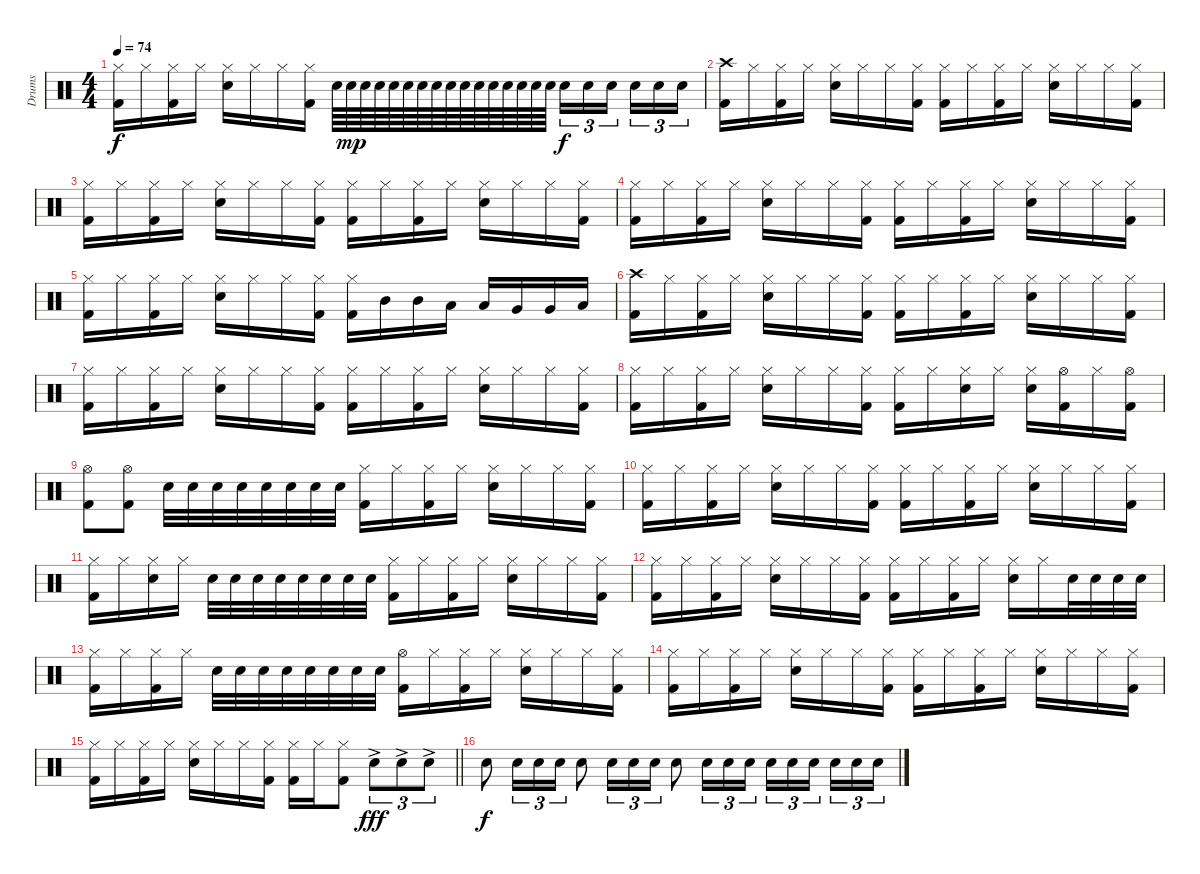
\track ("Drums" "Drums") {instrument percussion}
\staff {score}
\articulation defaults
\ts (4 4)
\tempo 74
\clef neutral
\ks aminor
("Hi-Hat (closed)" "Kick (hit) 2").16{dy f} "Hi-Hat (closed)".16 ("Hi-Hat (closed)" "Kick (hit) 2").16 "Hi-Hat (closed)".16 ("Hi-Hat (closed)" "Snare (hit) 2").16 "Hi-Hat (closed)".16 "Hi-Hat (closed)".16 ("Hi-Hat (closed)" "Kick (hit) 2").16 "Snare (hit) 2".64 "Snare (hit) 2".64{dy mp} "Snare (hit) 2".64 "Snare (hit) 2".64 "Snare (hit) 2".64 "Snare (hit) 2".64 "Snare (hit) 2".64 "Snare (hit) 2".64 "Snare (hit) 2".64 "Snare (hit) 2".64 "Snare (hit) 2".64 "Snare (hit) 2".64 "Snare (hit) 2".64 "Snare (hit) 2".64 "Snare (hit) 2".64 "Snare (hit) 2".64 "Snare (hit) 2".16{tu (3 2) dy f} "Snare (hit) 2".16{tu (3 2)} "Snare (hit) 2".16{tu (3 2)} "Snare (hit) 2".16{tu (3 2)} "Snare (hit) 2".16{tu (3 2)} "Snare (hit) 2".16{tu (3 2)} |
("Crash high (hit)" "Kick (hit) 2").16 "Hi-Hat (closed)".16 ("Hi-Hat (closed)" "Kick (hit) 2").16 "Hi-Hat (closed)".16 ("Hi-Hat (closed)" "Snare (hit) 2").16 "Hi-Hat (closed)".16 "Hi-Hat (closed)".16 ("Hi-Hat (closed)" "Kick (hit) 2").16 ("Hi-Hat (closed)" "Kick (hit) 2").16 "Hi-Hat (closed)".16 ("Hi-Hat (closed)" "Kick (hit) 2").16 "Hi-Hat (closed)".16 ("Hi-Hat (closed)" "Snare (hit) 2").16 "Hi-Hat (closed)".16 "Hi-Hat (closed)".16 ("Hi-Hat (closed)" "Kick (hit) 2").16 |
("Hi-Hat (closed)" "Kick (hit) 2").16 "Hi-Hat (closed)".16 ("Hi-Hat (closed)" "Kick (hit) 2").16 "Hi-Hat (closed)".16 ("Hi-Hat (closed)" "Snare (hit) 2").16 "Hi-Hat (closed)".16 "Hi-Hat (closed)".16 ("Hi-Hat (closed)" "Kick (hit) 2").16 ("Hi-Hat (closed)" "Kick (hit) 2").16 "Hi-Hat (closed)".16 ("Hi-Hat (closed)" "Kick (hit) 2").16 "Hi-Hat (closed)".16 ("Hi-Hat (closed)" "Snare (hit) 2").16 "Hi-Hat (closed)".16 "Hi-Hat (closed)".16 ("Hi-Hat (closed)" "Kick (hit) 2").16 |
("Hi-Hat (closed)" "Kick (hit) 2").16 "Hi-Hat (closed)".16 ("Hi-Hat (closed)" "Kick (hit) 2").16 "Hi-Hat (closed)".16 ("Hi-Hat (closed)" "Snare (hit) 2").16 "Hi-Hat (closed)".16 "Hi-Hat (closed)".16 ("Hi-Hat (closed)" "Kick (hit) 2").16 ("Hi-Hat (closed)" "Kick (hit) 2").16 "Hi-Hat (closed)".16 ("Hi-Hat (closed)" "Kick (hit) 2").16 "Hi-Hat (closed)".16 ("Hi-Hat (closed)" "Snare (hit) 2").16 "Hi-Hat (closed)".16 "Hi-Hat (closed)".16 ("Hi-Hat (closed)" "Kick (hit) 2").16 |
("Hi-Hat (closed)" "Kick (hit) 2").16 "Hi-Hat (closed)".16 ("Hi-Hat (closed)" "Kick (hit) 2").16 "Hi-Hat (closed)".16 ("Hi-Hat (closed)" "Snare (hit) 2").16 "Hi-Hat (closed)".16 "Hi-Hat (closed)".16 ("Hi-Hat (closed)" "Kick (hit) 2").16 ("Hi-Hat (closed)" "Kick (hit) 2").16 "Mid Tom (hit)".16 "Mid Tom (hit)".16 "Low Tom (hit)".16 "Low Tom (hit)".16 "Very Low Tom (hit)".16 "Very Low Tom (hit)".16 "Low Floor Tom (hit)".16 |
("Crash high (hit)" "Kick (hit) 2").16 "Hi-Hat (closed)".16 ("Hi-Hat (closed)" "Kick (hit) 2").16 "Hi-Hat (closed)".16 ("Hi-Hat (closed)" "Snare (hit) 2").16 "Hi-Hat (closed)".16 "Hi-Hat (closed)".16 ("Hi-Hat (closed)" "Kick (hit) 2").16 ("Hi-Hat (closed)" "Kick (hit) 2").16 "Hi-Hat (closed)".16 ("Hi-Hat (closed)" "Kick (hit) 2").16 "Hi-Hat (closed)".16 ("Hi-Hat (closed)" "Snare (hit) 2").16 "Hi-Hat (closed)".16 "Hi-Hat (closed)".16 ("Hi-Hat (closed)" "Kick (hit) 2").16 |
("Hi-Hat (closed)" "Kick (hit) 2").16 "Hi-Hat (closed)".16 ("Hi-Hat (closed)" "Kick (hit) 2").16 "Hi-Hat (closed)".16 ("Hi-Hat (closed)" "Snare (hit) 2").16 "Hi-Hat (closed)".16 "Hi-Hat (closed)".16 ("Hi-Hat (closed)" "Kick (hit) 2").16 ("Hi-Hat (closed)" "Kick (hit) 2").16 "Hi-Hat (closed)".16 ("Hi-Hat (closed)" "Kick (hit) 2").16 "Hi-Hat (closed)".16 ("Hi-Hat (closed)" "Snare (hit) 2").16 "Hi-Hat (closed)".16 "Hi-Hat (closed)".16 ("Hi-Hat (closed)" "Kick (hit) 2").16 |
("Hi-Hat (closed)" "Kick (hit) 2").16 "Hi-Hat (closed)".16 ("Hi-Hat (closed)" "Kick (hit) 2").16 "Hi-Hat (closed)".16 ("Hi-Hat (closed)" "Snare (hit) 2").16 "Hi-Hat (closed)".16 "Hi-Hat (closed)".16 ("Hi-Hat (closed)" "Kick (hit) 2").16 ("Hi-Hat (closed)" "Kick (hit) 2").16 "Hi-Hat (closed)".16 ("Hi-Hat (closed)" "Snare (hit) 2").16 "Hi-Hat (closed)".16 ("Hi-Hat (closed)" "Snare (hit) 2").16 ("Hi-Hat (open)" "Kick (hit) 2").16 "Hi-Hat (closed)".16 ("Hi-Hat (open)" "Kick (hit) 2").16 |
("Hi-Hat (open)" "Kick (hit) 2").8 ("Hi-Hat (open)" "Kick (hit) 2").8 "Snare (hit) 2".32 "Snare (hit) 2".32 "Snare (hit) 2".32 "Snare (hit) 2".32 "Snare (hit) 2".32 "Snare (hit) 2".32 "Snare (hit) 2".32 "Snare (hit) 2".32 ("Hi-Hat (closed)" "Kick (hit) 2").16 "Hi-Hat (closed)".16 ("Hi-Hat (closed)" "Kick (hit) 2").16 "Hi-Hat (closed)".16 ("Hi-Hat (closed)" "Snare (hit) 2").16 "Hi-Hat (closed)".16 "Hi-Hat (closed)".16 ("Hi-Hat (closed)" "Kick (hit) 2").16 |
("Hi-Hat (closed)" "Kick (hit) 2").16 "Hi-Hat (closed)".16 ("Hi-Hat (closed)" "Kick (hit) 2").16 "Hi-Hat (closed)".16 ("Hi-Hat (closed)" "Snare (hit) 2").16 "Hi-Hat (closed)".16 "Hi-Hat (closed)".16 ("Hi-Hat (closed)" "Kick (hit) 2").16 ("Hi-Hat (closed)" "Kick (hit) 2").16 "Hi-Hat (closed)".16 ("Hi-Hat (closed)" "Kick (hit) 2").16 "Hi-Hat (closed)".16 ("Hi-Hat (closed)" "Snare (hit) 2").16 "Hi-Hat (closed)".16 "Hi-Hat (closed)".16 ("Hi-Hat (closed)" "Kick (hit) 2").16 |
("Hi-Hat (closed)" "Kick (hit) 2").16 "Hi-Hat (closed)".16 ("Hi-Hat (closed)" "Snare (hit) 2").16 "Hi-Hat (closed)".16 "Snare (hit) 2".32 "Snare (hit) 2".32 "Snare (hit) 2".32 "Snare (hit) 2".32 "Snare (hit) 2".32 "Snare (hit) 2".32 "Snare (hit) 2".32 "Snare (hit) 2".32 ("Hi-Hat (closed)" "Kick (hit) 2").16 "Hi-Hat (closed)".16 ("Hi-Hat (closed)" "Kick (hit) 2").16 "Hi-Hat (closed)".16 ("Hi-Hat (closed)" "Snare (hit) 2").16 "Hi-Hat (closed)".16 "Hi-Hat (closed)".16 ("Hi-Hat (closed)" "Kick (hit) 2").16 |
("Hi-Hat (closed)" "Kick (hit) 2").16 "Hi-Hat (closed)".16 ("Hi-Hat (closed)" "Kick (hit) 2").16 "Hi-Hat (closed)".16 ("Hi-Hat (closed)" "Snare (hit) 2").16 "Hi-Hat (closed)".16 "Hi-Hat (closed)".16 ("Hi-Hat (closed)" "Kick (hit) 2").16 ("Hi-Hat (closed)" "Kick (hit) 2").16 "Hi-Hat (closed)".16 ("Hi-Hat (closed)" "Kick (hit) 2").16 "Hi-Hat (closed)".16 ("Hi-Hat (closed)" "Snare (hit) 2").16 "Hi-Hat (closed)".16 "Snare (hit) 2".32 "Snare (hit) 2".32 "Snare (hit) 2".32 "Snare (hit) 2".32 |
("Hi-Hat (closed)" "Kick (hit) 2").16 "Hi-Hat (closed)".16 ("Hi-Hat (closed)" "Kick (hit) 2").16 "Hi-Hat (closed)".16 "Snare (hit) 2".32 "Snare (hit) 2".32 "Snare (hit) 2".32 "Snare (hit) 2".32 "Snare (hit) 2".32 "Snare (hit) 2".32 "Snare (hit) 2".32 "Snare (hit) 2".32 ("Hi-Hat (open)" "Kick (hit) 2").16 "Hi-Hat (closed)".16 ("Hi-Hat (closed)" "Kick (hit) 2").16 "Hi-Hat (closed)".16 ("Hi-Hat (closed)" "Snare (hit) 2").16 "Hi-Hat (closed)".16 "Hi-Hat (closed)".16 ("Hi-Hat (closed)" "Kick (hit) 2").16 |
("Hi-Hat (closed)" "Kick (hit) 2").16 "Hi-Hat (closed)".16 ("Hi-Hat (closed)" "Kick (hit) 2").16 "Hi-Hat (closed)".16 ("Hi-Hat (closed)" "Snare (hit) 2").16 "Hi-Hat (closed)".16 "Hi-Hat (closed)".16 ("Hi-Hat (closed)" "Kick (hit) 2").16 ("Hi-Hat (closed)" "Kick (hit) 2").16 "Hi-Hat (closed)".16 ("Hi-Hat (closed)" "Kick (hit) 2").16 "Hi-Hat (closed)".16 ("Hi-Hat (closed)" "Snare (hit) 2").16 "Hi-Hat (closed)".16 "Hi-Hat (closed)".16 ("Hi-Hat (closed)" "Kick (hit) 2").16 |
\barLineRight lightlight
("Hi-Hat (closed)" "Kick (hit) 2").16 "Hi-Hat (closed)".16 ("Hi-Hat (closed)" "Kick (hit) 2").16 "Hi-Hat (closed)".16 ("Hi-Hat (closed)" "Snare (hit) 2").16 "Hi-Hat (closed)".16 "Hi-Hat (closed)".16 ("Hi-Hat (closed)" "Kick (hit) 2").16 ("Hi-Hat (closed)" "Kick (hit) 2").16 "Hi-Hat (closed)".16 ("Hi-Hat (closed)" "Kick (hit) 2").8 "Snare (hit) 2"{ac}.8{tu (3 2) dy fff} "Snare (hit) 2"{ac}.8{tu (3 2)} "Snare (hit) 2"{ac}.8{tu (3 2)} |
"Snare (hit) 2".8{dy f} "Snare (hit) 2".16{tu (3 2)} "Snare (hit) 2".16{tu (3 2)} "Snare (hit) 2".16{tu (3 2)} "Snare (hit) 2".8 "Snare (hit) 2".16{tu (3 2)} "Snare (hit) 2".16{tu (3 2)} "Snare (hit) 2".16{tu (3 2)} "Snare (hit) 2".8 "Snare (hit) 2".16{tu (3 2)} "Snare (hit) 2".16{tu (3 2)} "Snare (hit) 2".16{tu (3 2)} "Snare (hit) 2".16{tu (3 2)} "Snare (hit) 2".16{tu (3 2)} "Snare (hit) 2".16{tu (3 2)} "Snare (hit) 2".16{tu (3 2)} "Snare (hit) 2".16{tu (3 2)} "Snare (hit) 2".16{tu (3 2)}
